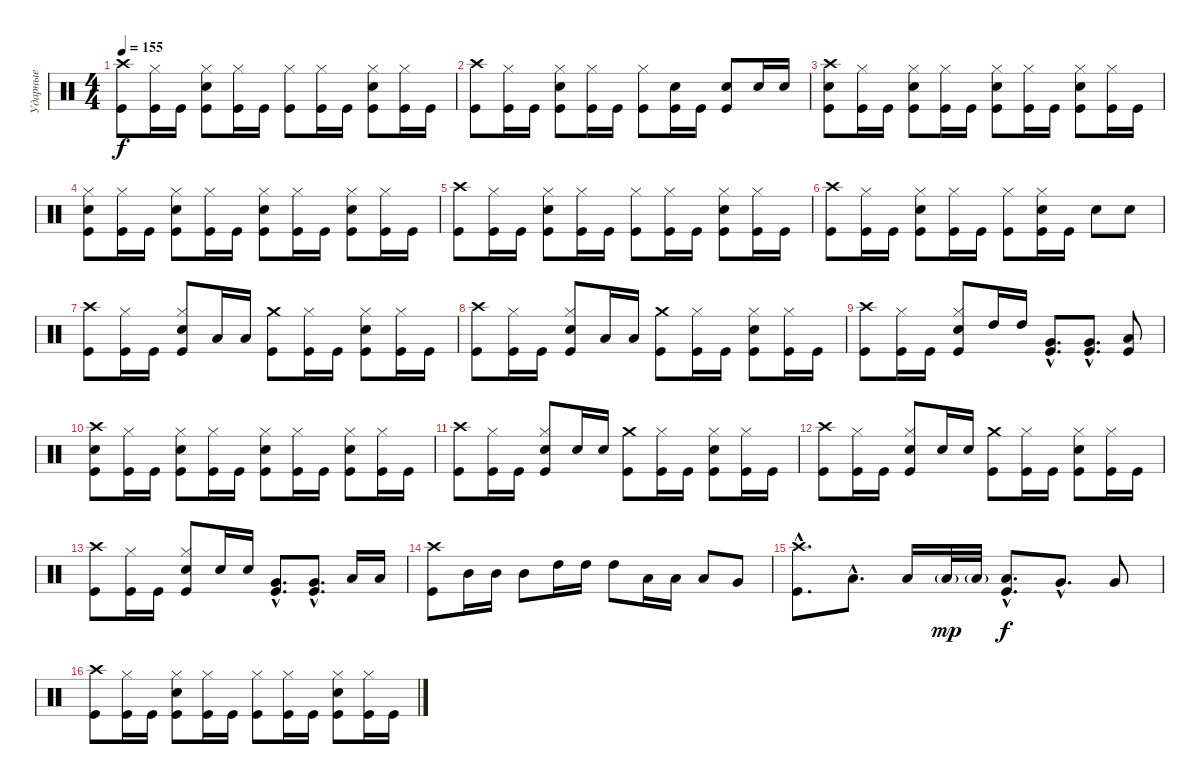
\track ("Ударные" "Ударные") {instrument percussion}
\staff {score}
\articulation defaults
\ts (4 4)
\tempo 155
\clef neutral
\ks c
("Crash high (hit)" "Kick (hit)").8{dy f} ("Hi-Hat (closed)" "Kick (hit)").16 "Kick (hit)".16 ("Hi-Hat (closed)" "Electric Snare (hit)" "Kick (hit)").8 ("Hi-Hat (closed)" "Kick (hit)").16 "Kick (hit)".16 ("Hi-Hat (closed)" "Kick (hit)").8 ("Hi-Hat (closed)" "Kick (hit)").16 "Kick (hit)".16 ("Hi-Hat (closed)" "Electric Snare (hit)" "Kick (hit)").8 ("Hi-Hat (closed)" "Kick (hit)").16 "Kick (hit)".16 |
("Crash high (hit)" "Kick (hit)").8 ("Hi-Hat (closed)" "Kick (hit)").16 "Kick (hit)".16 ("Hi-Hat (closed)" "Electric Snare (hit)" "Kick (hit)").8 ("Hi-Hat (closed)" "Kick (hit)").16 "Kick (hit)".16 ("Hi-Hat (closed)" "Kick (hit)").8 ("Electric Snare (hit)" "Kick (hit)").16 "Kick (hit)".16 ("Electric Snare (hit)" "Kick (hit)").8 "Electric Snare (hit)".16 "Electric Snare (hit)".16 |
("Crash high (hit)" "Electric Snare (hit)" "Kick (hit)").8 ("Hi-Hat (closed)" "Kick (hit)").16 "Kick (hit)".16 ("Hi-Hat (closed)" "Electric Snare (hit)" "Kick (hit)").8 ("Hi-Hat (closed)" "Kick (hit)").16 "Kick (hit)".16 ("Hi-Hat (closed)" "Electric Snare (hit)" "Kick (hit)").8 ("Hi-Hat (closed)" "Kick (hit)").16 "Kick (hit)".16 ("Hi-Hat (closed)" "Electric Snare (hit)" "Kick (hit)").8 ("Hi-Hat (closed)" "Kick (hit)").16 "Kick (hit)".16 |
("Hi-Hat (closed)" "Electric Snare (hit)" "Kick (hit)").8 ("Hi-Hat (closed)" "Kick (hit)").16 "Kick (hit)".16 ("Hi-Hat (closed)" "Electric Snare (hit)" "Kick (hit)").8 ("Hi-Hat (closed)" "Kick (hit)").16 "Kick (hit)".16 ("Hi-Hat (closed)" "Electric Snare (hit)" "Kick (hit)").8 ("Hi-Hat (closed)" "Kick (hit)").16 "Kick (hit)".16 ("Hi-Hat (closed)" "Electric Snare (hit)" "Kick (hit)").8 ("Hi-Hat (closed)" "Kick (hit)").16 "Kick (hit)".16 |
("Crash high (hit)" "Kick (hit)").8 ("Hi-Hat (closed)" "Kick (hit)").16 "Kick (hit)".16 ("Hi-Hat (closed)" "Electric Snare (hit)" "Kick (hit)").8 ("Hi-Hat (closed)" "Kick (hit)").16 "Kick (hit)".16 ("Hi-Hat (closed)" "Kick (hit)").8 ("Hi-Hat (closed)" "Kick (hit)").16 "Kick (hit)".16 ("Hi-Hat (closed)" "Electric Snare (hit)" "Kick (hit)").8 ("Hi-Hat (closed)" "Kick (hit)").16 "Kick (hit)".16 |
("Crash high (hit)" "Kick (hit)").8 ("Hi-Hat (closed)" "Kick (hit)").16 "Kick (hit)".16 ("Hi-Hat (closed)" "Electric Snare (hit)" "Kick (hit)").8 ("Hi-Hat (closed)" "Kick (hit)").16 "Kick (hit)".16 ("Hi-Hat (closed)" "Kick (hit)").8 ("Hi-Hat (closed)" "Electric Snare (hit)" "Kick (hit)").16 "Kick (hit)".16 "Electric Snare (hit)".8 "Electric Snare (hit)".8 |
("Crash high (hit)" "Kick (hit)").8 ("Hi-Hat (closed)" "Kick (hit)").16 "Kick (hit)".16 ("Hi-Hat (closed)" "Electric Snare (hit)" "Kick (hit)").8 "Low Tom (hit)".16 "Low Tom (hit)".16 ("Crash medium (hit)" "Kick (hit)").8 ("Hi-Hat (closed)" "Kick (hit)").16 "Kick (hit)".16 ("Hi-Hat (closed)" "Electric Snare (hit)" "Kick (hit)").8 ("Hi-Hat (closed)" "Kick (hit)").16 "Kick (hit)".16 |
("Crash high (hit)" "Kick (hit)").8 ("Hi-Hat (closed)" "Kick (hit)").16 "Kick (hit)".16 ("Hi-Hat (closed)" "Electric Snare (hit)" "Kick (hit)").8 "Low Tom (hit)".16 "Low Tom (hit)".16 ("Crash medium (hit)" "Kick (hit)").8 ("Hi-Hat (closed)" "Kick (hit)").16 "Kick (hit)".16 ("Hi-Hat (closed)" "Electric Snare (hit)" "Kick (hit)").8 ("Hi-Hat (closed)" "Kick (hit)").16 "Kick (hit)".16 |
("Crash high (hit)" "Kick (hit)").8 ("Hi-Hat (closed)" "Kick (hit)").16 "Kick (hit)".16 ("Hi-Hat (closed)" "Electric Snare (hit)" "Kick (hit)").8 "High Tom (hit)".16 "High Tom (hit)".16 ("Very Low Tom (hit)"{hac} "Kick (hit)"{hac}).8{d} ("Very Low Tom (hit)"{hac} "Kick (hit)"{hac}).8{d} ("Low Tom (hit)" "Kick (hit)").8 |
("Crash high (hit)" "Electric Snare (hit)" "Kick (hit)").8 ("Hi-Hat (closed)" "Kick (hit)").16 "Kick (hit)".16 ("Hi-Hat (closed)" "Electric Snare (hit)" "Kick (hit)").8 ("Hi-Hat (closed)" "Kick (hit)").16 "Kick (hit)".16 ("Hi-Hat (closed)" "Electric Snare (hit)" "Kick (hit)").8 ("Hi-Hat (closed)" "Kick (hit)").16 "Kick (hit)".16 ("Hi-Hat (closed)" "Electric Snare (hit)" "Kick (hit)").8 ("Hi-Hat (closed)" "Kick (hit)").16 "Kick (hit)".16 |
("Crash high (hit)" "Kick (hit)").8 ("Hi-Hat (closed)" "Kick (hit)").16 "Kick (hit)".16 ("Hi-Hat (closed)" "Electric Snare (hit)" "Kick (hit)").8 "Electric Snare (hit)".16 "Electric Snare (hit)".16 ("Crash medium (hit)" "Kick (hit)").8 ("Hi-Hat (closed)" "Kick (hit)").16 "Kick (hit)".16 ("Hi-Hat (closed)" "Electric Snare (hit)" "Kick (hit)").8 ("Hi-Hat (closed)" "Kick (hit)").16 "Kick (hit)".16 |
("Crash high (hit)" "Kick (hit)").8 ("Hi-Hat (closed)" "Kick (hit)").16 "Kick (hit)".16 ("Hi-Hat (closed)" "Electric Snare (hit)" "Kick (hit)").8 "Electric Snare (hit)".16 "Electric Snare (hit)".16 ("Crash medium (hit)" "Kick (hit)").8 ("Hi-Hat (closed)" "Kick (hit)").16 "Kick (hit)".16 ("Hi-Hat (closed)" "Electric Snare (hit)" "Kick (hit)").8 ("Hi-Hat (closed)" "Kick (hit)").16 "Kick (hit)".16 |
("Crash high (hit)" "Kick (hit)").8 ("Hi-Hat (closed)" "Kick (hit)").16 "Kick (hit)".16 ("Hi-Hat (closed)" "Electric Snare (hit)" "Kick (hit)").8 "Electric Snare (hit)".16 "Electric Snare (hit)".16 ("Very Low Tom (hit)"{hac} "Kick (hit)"{hac}).8{d} ("Very Low Tom (hit)"{hac} "Kick (hit)"{hac}).8{d} "Low Tom (hit)".16 "Low Tom (hit)".16 |
("Crash high (hit)" "Kick (hit)").8 "Mid Tom (hit)".16 "Mid Tom (hit)".16 "Mid Tom (hit)".8 "High Tom (hit)".16 "High Tom (hit)".16 "High Tom (hit)".8 "Low Tom (hit)".16 "Low Tom (hit)".16 "Low Tom (hit)".8 "Very Low Tom (hit)".8 |
("Crash high (hit)"{hac} "Kick (hit)"{hac}).8{d} "Low Tom (hit)"{hac}.8{d} "Low Tom (hit)".16 "Low Tom (hit)"{g}.32{dy mp} "Low Tom (hit)"{g}.32 ("Low Tom (hit)"{hac} "Kick (hit)"{hac}).8{d dy f} "Very Low Tom (hit)"{hac}.8{d} "Very Low Tom (hit)".8 |
("Crash high (hit)" "Kick (hit)").8 ("Hi-Hat (closed)" "Kick (hit)").16 "Kick (hit)".16 ("Hi-Hat (closed)" "Electric Snare (hit)" "Kick (hit)").8 ("Hi-Hat (closed)" "Kick (hit)").16 "Kick (hit)".16 ("Hi-Hat (closed)" "Kick (hit)").8 ("Hi-Hat (closed)" "Kick (hit)").16 "Kick (hit)".16 ("Hi-Hat (closed)" "Electric Snare (hit)" "Kick (hit)").8 ("Hi-Hat (closed)" "Kick (hit)").16 "Kick (hit)".16
